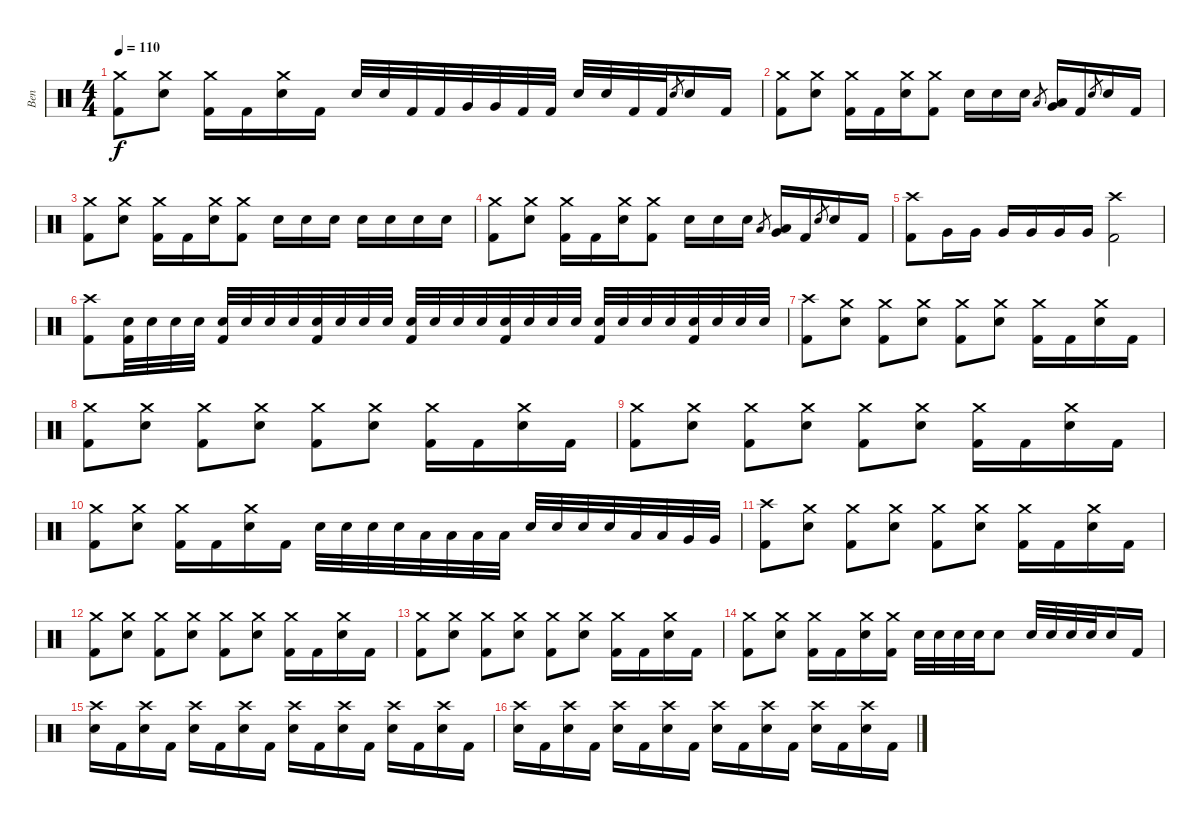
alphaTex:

\track ("Ben" "Ben") {instrument percussion}
\staff {score}
\articulation defaults
\ts (4 4)
\tempo 110
\clef neutral
\ks c
("Crash medium (hit)" "Kick (hit) 2").8{dy f} ("Crash medium (hit)" "Snare (hit) 2").8 ("Crash medium (hit)" "Kick (hit) 2").16 "Kick (hit) 2".16 ("Crash medium (hit)" "Snare (hit) 2").16 "Kick (hit) 2".16 "Snare (hit) 2".32 "Snare (hit) 2".32 "Kick (hit) 2".32 "Kick (hit) 2".32 "Very Low Tom (hit)".32 "Very Low Tom (hit)".32 "Kick (hit) 2".32 "Kick (hit) 2".32 "Snare (hit) 2".32 "Snare (hit) 2".32 "Kick (hit) 2".32 "Kick (hit) 2".32 "Snare (hit) 2".8{gr} "Snare (hit) 2".16 "Kick (hit) 2".16 |
("Crash medium (hit)" "Kick (hit) 2").8 ("Crash medium (hit)" "Snare (hit) 2").8 ("Crash medium (hit)" "Kick (hit) 2").16 "Kick (hit) 2".16 ("Crash medium (hit)" "Snare (hit) 2").16 ("Crash medium (hit)" "Kick (hit) 2").8 "Snare (hit) 2".16 "Snare (hit) 2".16 "Snare (hit) 2".16 "Low Floor Tom (hit)".8{gr} ("Low Floor Tom (hit)" "Very Low Tom (hit)").16 "Kick (hit) 2".16 "Snare (hit) 2".8{gr} "Snare (hit) 2".16 "Kick (hit) 2".16 |
("Crash medium (hit)" "Kick (hit) 2").8 ("Crash medium (hit)" "Snare (hit) 2").8 ("Crash medium (hit)" "Kick (hit) 2").16 "Kick (hit) 2".16 ("Crash medium (hit)" "Snare (hit) 2").16 ("Crash medium (hit)" "Kick (hit) 2").8 "Snare (hit) 2".16 "Snare (hit) 2".16 "Snare (hit) 2".16 "Snare (hit) 2".16 "Snare (hit) 2".16 "Snare (hit) 2".16 "Snare (hit) 2".16 |
("Crash medium (hit)" "Kick (hit) 2").8 ("Crash medium (hit)" "Snare (hit) 2").8 ("Crash medium (hit)" "Kick (hit) 2").16 "Kick (hit) 2".16 ("Crash medium (hit)" "Snare (hit) 2").16 ("Crash medium (hit)" "Kick (hit) 2").8 "Snare (hit) 2".16 "Snare (hit) 2".16 "Snare (hit) 2".16 "Low Floor Tom (hit)".8{gr} ("Low Floor Tom (hit)" "Very Low Tom (hit)").16 "Kick (hit) 2".16 "Snare (hit) 2".8{gr} "Snare (hit) 2".16 "Kick (hit) 2".16 |
("Crash high (hit)" "Kick (hit) 2").8 "Very Low Tom (hit)".16 "Very Low Tom (hit)".16 "Very Low Tom (hit)".16 "Very Low Tom (hit)".16 "Very Low Tom (hit)".16 "Very Low Tom (hit)".16 ("Crash high (hit)" "Kick (hit) 2").2 |
("Crash high (hit)" "Kick (hit) 2").8 ("Kick (hit) 2" "Snare (hit) 2").32 "Snare (hit) 2".32 "Snare (hit) 2".32 "Snare (hit) 2".32 ("Kick (hit) 2" "Snare (hit) 2").32 "Snare (hit) 2".32 "Snare (hit) 2".32 "Snare (hit) 2".32 ("Kick (hit) 2" "Snare (hit) 2").32 "Snare (hit) 2".32 "Snare (hit) 2".32 "Snare (hit) 2".32 ("Kick (hit) 2" "Snare (hit) 2").32 "Snare (hit) 2".32 "Snare (hit) 2".32 "Snare (hit) 2".32 ("Kick (hit) 2" "Snare (hit) 2").32 "Snare (hit) 2".32 "Snare (hit) 2".32 "Snare (hit) 2".32 ("Kick (hit) 2" "Snare (hit) 2").32 "Snare (hit) 2".32 "Snare (hit) 2".32 "Snare (hit) 2".32 ("Kick (hit) 2" "Snare (hit) 2").32 "Snare (hit) 2".32 "Snare (hit) 2".32 "Snare (hit) 2".32 |
("Crash high (hit)" "Kick (hit) 2").8 ("Crash medium (hit)" "Snare (hit) 2").8 ("Crash medium (hit)" "Kick (hit) 2").8 ("Crash medium (hit)" "Snare (hit) 2").8 ("Crash medium (hit)" "Kick (hit) 2").8 ("Crash medium (hit)" "Snare (hit) 2").8 ("Crash medium (hit)" "Kick (hit) 2").16 "Kick (hit) 2".16 ("Crash medium (hit)" "Snare (hit) 2").16 "Kick (hit) 2".16 |
("Crash medium (hit)" "Kick (hit) 2").8 ("Crash medium (hit)" "Snare (hit) 2").8 ("Crash medium (hit)" "Kick (hit) 2").8 ("Crash medium (hit)" "Snare (hit) 2").8 ("Crash medium (hit)" "Kick (hit) 2").8 ("Crash medium (hit)" "Snare (hit) 2").8 ("Crash medium (hit)" "Kick (hit) 2").16 "Kick (hit) 2".16 ("Crash medium (hit)" "Snare (hit) 2").16 "Kick (hit) 2".16 |
("Crash medium (hit)" "Kick (hit) 2").8 ("Crash medium (hit)" "Snare (hit) 2").8 ("Crash medium (hit)" "Kick (hit) 2").8 ("Crash medium (hit)" "Snare (hit) 2").8 ("Crash medium (hit)" "Kick (hit) 2").8 ("Crash medium (hit)" "Snare (hit) 2").8 ("Crash medium (hit)" "Kick (hit) 2").16 "Kick (hit) 2".16 ("Crash medium (hit)" "Snare (hit) 2").16 "Kick (hit) 2".16 |
("Crash medium (hit)" "Kick (hit) 2").8 ("Crash medium (hit)" "Snare (hit) 2").8 ("Crash medium (hit)" "Kick (hit) 2").16 "Kick (hit) 2".16 ("Crash medium (hit)" "Snare (hit) 2").16 "Kick (hit) 2".16 "Snare (hit) 2".32 "Snare (hit) 2".32 "Snare (hit) 2".32 "Snare (hit) 2".32 "Low Tom (hit)".32 "Low Tom (hit)".32 "Low Tom (hit)".32 "Low Tom (hit)".32 "Snare (hit) 2".32 "Snare (hit) 2".32 "Snare (hit) 2".32 "Snare (hit) 2".32 "Low Tom (hit)".32 "Low Tom (hit)".32 "Very Low Tom (hit)".32 "Very Low Tom (hit)".32 |
("Crash high (hit)" "Kick (hit) 2").8 ("Crash medium (hit)" "Snare (hit) 2").8 ("Crash medium (hit)" "Kick (hit) 2").8 ("Crash medium (hit)" "Snare (hit) 2").8 ("Crash medium (hit)" "Kick (hit) 2").8 ("Crash medium (hit)" "Snare (hit) 2").8 ("Crash medium (hit)" "Kick (hit) 2").16 "Kick (hit) 2".16 ("Crash medium (hit)" "Snare (hit) 2").16 "Kick (hit) 2".16 |
("Crash medium (hit)" "Kick (hit) 2").8 ("Crash medium (hit)" "Snare (hit) 2").8 ("Crash medium (hit)" "Kick (hit) 2").8 ("Crash medium (hit)" "Snare (hit) 2").8 ("Crash medium (hit)" "Kick (hit) 2").8 ("Crash medium (hit)" "Snare (hit) 2").8 ("Crash medium (hit)" "Kick (hit) 2").16 "Kick (hit) 2".16 ("Crash medium (hit)" "Snare (hit) 2").16 "Kick (hit) 2".16 |
("Crash medium (hit)" "Kick (hit) 2").8 ("Crash medium (hit)" "Snare (hit) 2").8 ("Crash medium (hit)" "Kick (hit) 2").8 ("Crash medium (hit)" "Snare (hit) 2").8 ("Crash medium (hit)" "Kick (hit) 2").8 ("Crash medium (hit)" "Snare (hit) 2").8 ("Crash medium (hit)" "Kick (hit) 2").16 "Kick (hit) 2".16 ("Crash medium (hit)" "Snare (hit) 2").16 "Kick (hit) 2".16 |
("Crash medium (hit)" "Kick (hit) 2").8 ("Crash medium (hit)" "Snare (hit) 2").8 ("Crash medium (hit)" "Kick (hit) 2").16 "Kick (hit) 2".16 ("Crash medium (hit)" "Snare (hit) 2").16 ("Crash medium (hit)" "Kick (hit) 2").16 "Snare (hit) 2".32 "Snare (hit) 2".32 "Snare (hit) 2".32 "Snare (hit) 2".32 "Snare (hit) 2".8 "Snare (hit) 2".32 "Snare (hit) 2".32 "Snare (hit) 2".32 "Snare (hit) 2".32 "Snare (hit) 2".16 "Kick (hit) 2".16 |
("Crash high (hit)" "Snare (hit) 2").16 "Kick (hit) 2".16 ("Crash high (hit)" "Snare (hit) 2").16 "Kick (hit) 2".16 ("Crash high (hit)" "Snare (hit) 2").16 "Kick (hit) 2".16 ("Crash high (hit)" "Snare (hit) 2").16 "Kick (hit) 2".16 ("Crash high (hit)" "Snare (hit) 2").16 "Kick (hit) 2".16 ("Crash high (hit)" "Snare (hit) 2").16 "Kick (hit) 2".16 ("Crash high (hit)" "Snare (hit) 2").16 "Kick (hit) 2".16 ("Crash high (hit)" "Snare (hit) 2").16 "Kick (hit) 2".16 |
("Crash high (hit)" "Snare (hit) 2").16 "Kick (hit) 2".16 ("Crash high (hit)" "Snare (hit) 2").16 "Kick (hit) 2".16 ("Crash high (hit)" "Snare (hit) 2").16 "Kick (hit) 2".16 ("Crash high (hit)" "Snare (hit) 2").16 "Kick (hit) 2".16 ("Crash high (hit)" "Snare (hit) 2").16 "Kick (hit) 2".16 ("Crash high (hit)" "Snare (hit) 2").16 "Kick (hit) 2".16 ("Crash high (hit)" "Snare (hit) 2").16 "Kick (hit) 2".16 ("Crash high (hit)" "Snare (hit) 2").16 "Kick (hit) 2".16
